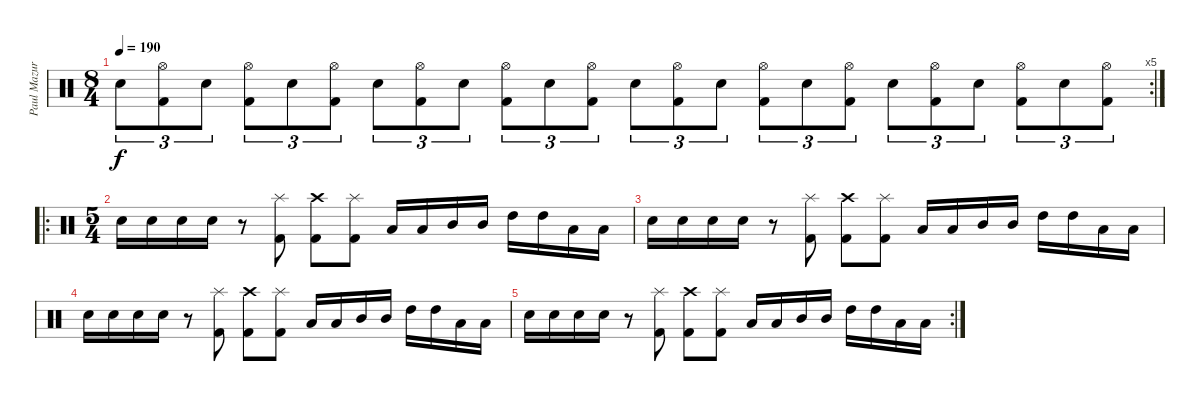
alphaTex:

\track ("Paul Mazurkiewicz" "Paul Mazur") {instrument percussion}
\staff {score}
\articulation defaults
\rc 5
\ts (8 4)
\tempo 190
\clef neutral
\ks c "Snare (hit) 2".8{tu (3 2) dy f}
("Hi-Hat (open)" "Kick (hit) 2").8{tu (3 2)} "Snare (hit) 2".8{tu (3 2)} ("Hi-Hat (open)" "Kick (hit) 2").8{tu (3 2)} "Snare (hit) 2".8{tu (3 2)} ("Hi-Hat (open)" "Kick (hit) 2").8{tu (3 2)} "Snare (hit) 2".8{tu (3 2)} ("Hi-Hat (open)" "Kick (hit) 2").8{tu (3 2)} "Snare (hit) 2".8{tu (3 2)} ("Hi-Hat (open)" "Kick (hit) 2").8{tu (3 2)} "Snare (hit) 2".8{tu (3 2)} ("Hi-Hat (open)" "Kick (hit) 2").8{tu (3 2)} "Snare (hit) 2".8{tu (3 2)} ("Hi-Hat (open)" "Kick (hit) 2").8{tu (3 2)} "Snare (hit) 2".8{tu (3 2)} ("Hi-Hat (open)" "Kick (hit) 2").8{tu (3 2)} "Snare (hit) 2".8{tu (3 2)} ("Hi-Hat (open)" "Kick (hit) 2").8{tu (3 2)} "Snare (hit) 2".8{tu (3 2)} ("Hi-Hat (open)" "Kick (hit) 2").8{tu (3 2)} "Snare (hit) 2".8{tu (3 2)} ("Hi-Hat (open)" "Kick (hit) 2").8{tu (3 2)} "Snare (hit) 2".8{tu (3 2)} ("Hi-Hat (open)" "Kick (hit) 2").8{tu (3 2)} |
\ro
\ts (5 4)
"Snare (hit) 2".16 "Snare (hit) 2".16 "Snare (hit) 2".16 "Snare (hit) 2".16 r.8 ("Splash (hit)" "Kick (hit) 2").8 ("Crash high (hit)" "Kick (hit) 2").8 ("Splash (hit)" "Kick (hit) 2").8 "Low Tom (hit)".16 "Low Tom (hit)".16 "Mid Tom (hit)".16 "Mid Tom (hit)".16 "High Tom (hit)".16 "High Tom (hit)".16 "Low Tom (hit)".16 "Low Tom (hit)".16 |
"Snare (hit) 2".16 "Snare (hit) 2".16 "Snare (hit) 2".16 "Snare (hit) 2".16 r.8 ("Splash (hit)" "Kick (hit) 2").8 ("Crash high (hit)" "Kick (hit) 2").8 ("Splash (hit)" "Kick (hit) 2").8 "Low Tom (hit)".16 "Low Tom (hit)".16 "Mid Tom (hit)".16 "Mid Tom (hit)".16 "High Tom (hit)".16 "High Tom (hit)".16 "Low Tom (hit)".16 "Low Tom (hit)".16 |
"Snare (hit) 2".16 "Snare (hit) 2".16 "Snare (hit) 2".16 "Snare (hit) 2".16 r.8 ("Splash (hit)" "Kick (hit) 2").8 ("Crash high (hit)" "Kick (hit) 2").8 ("Splash (hit)" "Kick (hit) 2").8 "Low Tom (hit)".16 "Low Tom (hit)".16 "Mid Tom (hit)".16 "Mid Tom (hit)".16 "High Tom (hit)".16 "High Tom (hit)".16 "Low Tom (hit)".16 "Low Tom (hit)".16 |
\rc 2 "Snare (hit) 2".16 "Snare (hit) 2".16 "Snare (hit) 2".16 "Snare (hit) 2".16
r.8 ("Splash (hit)" "Kick (hit) 2").8 ("Crash high (hit)" "Kick (hit) 2").8 ("Splash (hit)" "Kick (hit) 2").8 "Low Tom (hit)".16 "Low Tom (hit)".16 "Mid Tom (hit)".16 "Mid Tom (hit)".16 "High Tom (hit)".16 "High Tom (hit)".16 "Low Tom (hit)".16 "Low Tom (hit)".16
